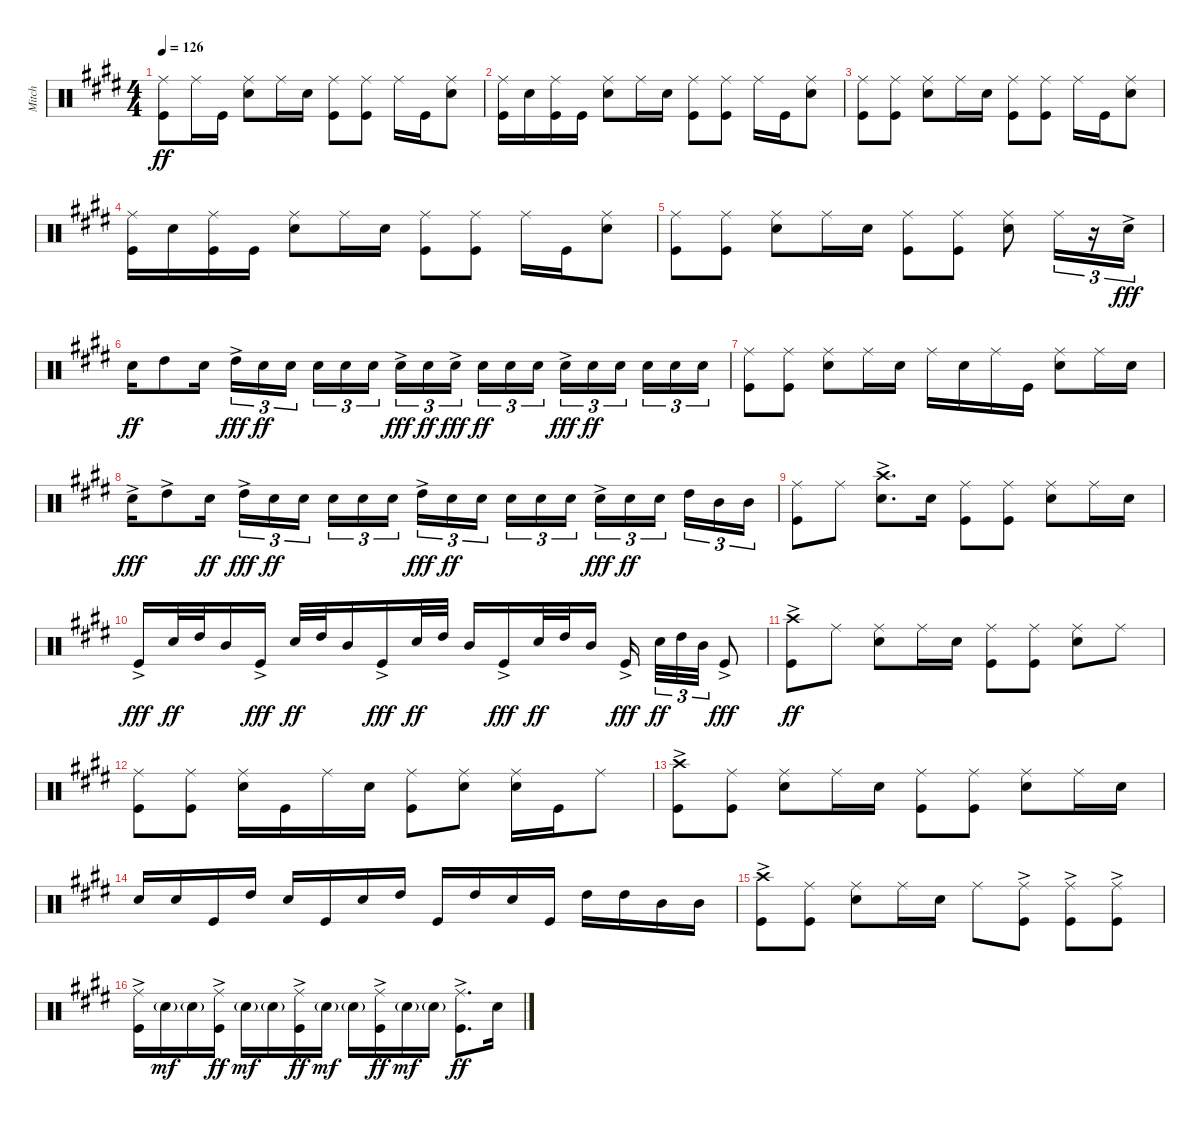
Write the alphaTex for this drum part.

\track ("Mitch" "Mitch") {instrument percussion}
\staff {score}
\articulation defaults
\ts (4 4)
\tempo 126
\clef neutral
\ks e
("Ride (middle)" "Kick (hit)").8{dy ff} "Ride (middle)".16 "Kick (hit)".16 ("Ride (middle)" "Snare (hit) 2").8 "Ride (middle)".16 "Snare (hit) 2".16 ("Ride (middle)" "Kick (hit)").8 ("Ride (middle)" "Kick (hit)").8 "Ride (middle)".16 "Kick (hit)".16 ("Ride (middle)" "Snare (hit) 2").8 |
("Ride (middle)" "Kick (hit)").16 "Snare (hit) 2".16 ("Ride (middle)" "Kick (hit)").16 "Kick (hit)".16 ("Ride (middle)" "Snare (hit) 2").8 "Ride (middle)".16 "Snare (hit) 2".16 ("Ride (middle)" "Kick (hit)").8 ("Ride (middle)" "Kick (hit)").8 "Ride (middle)".16 "Kick (hit)".16 ("Ride (middle)" "Snare (hit) 2").8 |
("Ride (middle)" "Kick (hit)").8 ("Ride (middle)" "Kick (hit)").8 ("Ride (middle)" "Snare (hit) 2").8 "Ride (middle)".16 "Snare (hit) 2".16 ("Ride (middle)" "Kick (hit)").8 ("Ride (middle)" "Kick (hit)").8 "Ride (middle)".16 "Kick (hit)".16 ("Ride (middle)" "Snare (hit) 2").8 |
("Ride (middle)" "Kick (hit)").16 "Snare (hit) 2".16 ("Ride (middle)" "Kick (hit)").16 "Kick (hit)".16 ("Ride (middle)" "Snare (hit) 2").8 "Ride (middle)".16 "Snare (hit) 2".16 ("Ride (middle)" "Kick (hit)").8 ("Ride (middle)" "Kick (hit)").8 "Ride (middle)".16 "Kick (hit)".16 ("Ride (middle)" "Snare (hit) 2").8 |
("Ride (middle)" "Kick (hit)").8 ("Ride (middle)" "Kick (hit)").8 ("Ride (middle)" "Snare (hit) 2").8 "Ride (middle)".16 "Snare (hit) 2".16 ("Ride (middle)" "Kick (hit)").8 ("Ride (middle)" "Kick (hit)").8 ("Ride (middle)" "Snare (hit) 2").8 "Ride (middle)".16{tu (3 2)} r.16{tu (3 2)} "Snare (hit) 2"{ac}.16{tu (3 2) dy fff} |
"Snare (hit) 2".16{dy ff} "High Tom (hit)".8 "Snare (hit) 2".16 "High Tom (hit)"{ac}.16{tu (3 2) dy fff} "Snare (hit) 2".16{tu (3 2) dy ff} "Snare (hit) 2".16{tu (3 2) beam splitsecondary} "Snare (hit) 2".16{tu (3 2)} "Snare (hit) 2".16{tu (3 2)} "Snare (hit) 2".16{tu (3 2)} "Snare (hit) 2"{ac}.16{tu (3 2) dy fff} "Snare (hit) 2".16{tu (3 2) dy ff} "Snare (hit) 2"{ac}.16{tu (3 2) dy fff beam splitsecondary} "Snare (hit) 2".16{tu (3 2) dy ff} "Snare (hit) 2".16{tu (3 2)} "Snare (hit) 2".16{tu (3 2)} "Snare (hit) 2"{ac}.16{tu (3 2) dy fff} "Snare (hit) 2".16{tu (3 2) dy ff} "Snare (hit) 2".16{tu (3 2) beam splitsecondary} "Snare (hit) 2".16{tu (3 2)} "Snare (hit) 2".16{tu (3 2)} "Snare (hit) 2".16{tu (3 2)} |
("Ride (middle)" "Kick (hit)").8 ("Ride (middle)" "Kick (hit)").8 ("Ride (middle)" "Snare (hit) 2").8 "Ride (middle)".16 "Snare (hit) 2".16 "Ride (middle)".16 "Snare (hit) 2".16 "Ride (middle)".16 "Kick (hit)".16 ("Ride (middle)" "Snare (hit) 2").8 "Ride (middle)".16 "Snare (hit) 2".16 |
"Snare (hit) 2"{ac}.16{dy fff} "High Tom (hit)"{ac}.8 "Snare (hit) 2".16{dy ff} "High Tom (hit)"{ac}.16{tu (3 2) dy fff} "Snare (hit) 2".16{tu (3 2) dy ff} "Snare (hit) 2".16{tu (3 2) beam splitsecondary} "Snare (hit) 2".16{tu (3 2)} "Snare (hit) 2".16{tu (3 2)} "Snare (hit) 2".16{tu (3 2)} "High Tom (hit)"{ac}.16{tu (3 2) dy fff} "Snare (hit) 2".16{tu (3 2) dy ff} "Snare (hit) 2".16{tu (3 2) beam splitsecondary} "Snare (hit) 2".16{tu (3 2)} "Snare (hit) 2".16{tu (3 2)} "Snare (hit) 2".16{tu (3 2)} "Snare (hit) 2"{ac}.16{tu (3 2) dy fff} "Snare (hit) 2".16{tu (3 2) dy ff} "Snare (hit) 2".16{tu (3 2) beam splitsecondary} "High Tom (hit)".16{tu (3 2)} "Mid Tom (hit)".16{tu (3 2)} "Mid Tom (hit)".16{tu (3 2)} |
("Ride (middle)" "Kick (hit)").8 "Ride (middle)".8 ("Crash high (hit)"{ac} "Snare (hit) 2").8{d} "Snare (hit) 2".16 ("Ride (middle)" "Kick (hit)").8 ("Ride (middle)" "Kick (hit)").8 ("Ride (middle)" "Snare (hit) 2").8 "Ride (middle)".16 "Snare (hit) 2".16 |
"Kick (hit)"{ac}.16{dy fff} "Snare (hit) 2".32{dy ff} "High Tom (hit)".32 "Mid Tom (hit)".16 "Kick (hit)"{ac}.16{dy fff} "Snare (hit) 2".32{dy ff} "High Tom (hit)".32 "Mid Tom (hit)".16 "Kick (hit)"{ac}.16{dy fff} "Snare (hit) 2".32{dy ff} "High Tom (hit)".32 "Mid Tom (hit)".16 "Kick (hit)"{ac}.16{dy fff} "Snare (hit) 2".32{dy ff} "High Tom (hit)".32 "Mid Tom (hit)".16 "Kick (hit)"{ac}.16{dy fff beam splitsecondary} "Snare (hit) 2".32{tu (3 2) dy ff} "High Tom (hit)".32{tu (3 2)} "Mid Tom (hit)".32{tu (3 2)} "Kick (hit)"{ac}.8{dy fff} |
("Crash high (hit)"{ac} "Kick (hit)").8{dy ff} "Ride (middle)".8 ("Ride (middle)" "Snare (hit) 2").8 "Ride (middle)".16 "Snare (hit) 2".16 ("Ride (middle)" "Kick (hit)").8 ("Ride (middle)" "Kick (hit)").8 ("Ride (middle)" "Snare (hit) 2").8 "Ride (middle)".8 |
("Ride (middle)" "Kick (hit)").8 ("Ride (middle)" "Kick (hit)").8 ("Ride (middle)" "Snare (hit) 2").16 "Kick (hit)".16 "Ride (middle)".16 "Snare (hit) 2".16 ("Ride (middle)" "Kick (hit)").8 ("Ride (middle)" "Snare (hit) 2").8 ("Ride (middle)" "Snare (hit) 2").16 "Kick (hit)".16 "Ride (middle)".8 |
("Crash high (hit)"{ac} "Kick (hit)").8 ("Ride (middle)" "Kick (hit)").8 ("Ride (middle)" "Snare (hit) 2").8 "Ride (middle)".16 "Snare (hit) 2".16 ("Ride (middle)" "Kick (hit)").8 ("Ride (middle)" "Kick (hit)").8 ("Ride (middle)" "Snare (hit) 2").8 "Ride (middle)".16 "Snare (hit) 2".16 |
"Snare (hit) 2".16 "Snare (hit) 2".16 "Kick (hit)".16 "High Tom (hit)".16 "Snare (hit) 2".16 "Kick (hit)".16 "Snare (hit) 2".16 "High Tom (hit)".16 "Kick (hit)".16 "High Tom (hit)".16 "Snare (hit) 2".16 "Kick (hit)".16 "High Tom (hit)".16 "High Tom (hit)".16 "Mid Tom (hit)".16 "Mid Tom (hit)".16 |
("Crash high (hit)"{ac} "Kick (hit)").8 ("Ride (middle)" "Kick (hit)").8 ("Ride (middle)" "Snare (hit) 2").8 "Ride (middle)".16 "Snare (hit) 2".16 "Ride (middle)".8 ("Ride (middle)"{ac} "Kick (hit)").8 ("Ride (middle)"{ac} "Kick (hit)").8 ("Ride (middle)"{ac} "Kick (hit)").8 |
("Ride (middle)"{ac} "Kick (hit)").16 "Snare (hit) 2"{g}.16{dy mf} "Snare (hit) 2"{g}.16 ("Ride (middle)"{ac} "Kick (hit)").16{dy ff} "Snare (hit) 2"{g}.16{dy mf} "Snare (hit) 2"{g}.16 ("Ride (middle)"{ac} "Kick (hit)").16{dy ff} "Snare (hit) 2"{g}.16{dy mf} "Snare (hit) 2"{g}.16 ("Ride (middle)"{ac} "Kick (hit)").16{dy ff} "Snare (hit) 2"{g}.16{dy mf} "Snare (hit) 2"{g}.16 ("Ride (middle)"{ac} "Kick (hit)").8{d dy ff} "Snare (hit) 2".16
